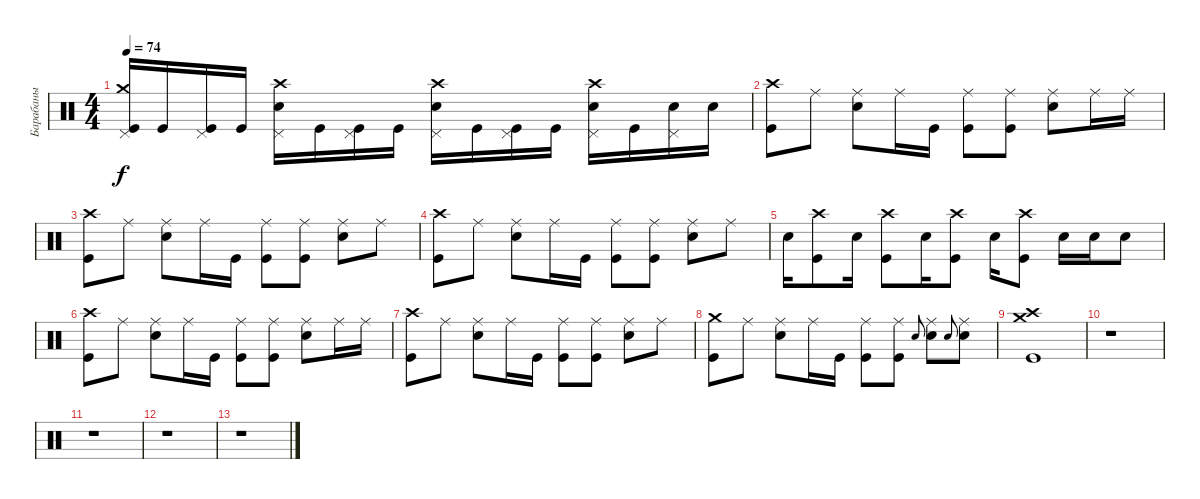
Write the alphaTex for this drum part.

\track ("Барабаны" "Барабаны") {instrument percussion}
\staff {score}
\articulation defaults
\ts (4 4)
\tempo 74
\clef neutral
\ks c
("Kick (hit)" "Crash medium (hit)" "Pedal Hi-Hat (hit)").16{dy f} "Kick (hit)".16 ("Kick (hit)" "Pedal Hi-Hat (hit)").16 "Kick (hit)".16 ("Snare (hit) 2" "Crash high (hit)" "Pedal Hi-Hat (hit)").16 "Kick (hit)".16 ("Kick (hit)" "Pedal Hi-Hat (hit)").16 "Kick (hit)".16 ("Snare (hit) 2" "Crash high (hit)" "Pedal Hi-Hat (hit)").16 "Kick (hit)".16 ("Kick (hit)" "Pedal Hi-Hat (hit)").16 "Kick (hit)".16 ("Snare (hit) 2" "Crash high (hit)" "Pedal Hi-Hat (hit)").16 "Kick (hit)".16 ("Snare (hit) 2" "Pedal Hi-Hat (hit)").16 "Snare (hit) 2".16 |
("Kick (hit)" "Crash high (hit)").8 "Ride (middle)".8 ("Snare (hit) 2" "Ride (middle)").8 "Ride (middle)".16 "Kick (hit)".16 ("Kick (hit)" "Ride (middle)").8 ("Kick (hit)" "Ride (middle)").8 ("Snare (hit) 2" "Ride (middle)").8 "Ride (middle)".16 "Ride (middle)".16 |
("Kick (hit)" "Crash high (hit)").8 "Ride (middle)".8 ("Snare (hit) 2" "Ride (middle)").8 "Ride (middle)".16 "Kick (hit)".16 ("Kick (hit)" "Ride (middle)").8 ("Kick (hit)" "Ride (middle)").8 ("Snare (hit) 2" "Ride (middle)").8 "Ride (middle)".8 |
("Kick (hit)" "Crash high (hit)").8 "Ride (middle)".8 ("Snare (hit) 2" "Ride (middle)").8 "Ride (middle)".16 "Kick (hit)".16 ("Kick (hit)" "Ride (middle)").8 ("Kick (hit)" "Ride (middle)").8 ("Snare (hit) 2" "Ride (middle)").8 "Ride (middle)".8 |
"Snare (hit) 2".16 ("Kick (hit)" "Crash high (hit)").8 "Snare (hit) 2".16 ("Kick (hit)" "Crash high (hit)").8 "Snare (hit) 2".16 ("Kick (hit)" "Crash high (hit)").8 "Snare (hit) 2".16 ("Kick (hit)" "Crash high (hit)").8 "Snare (hit) 2".16 "Snare (hit) 2".16 "Snare (hit) 2".8 |
("Kick (hit)" "Crash high (hit)").8 "Ride (middle)".8 ("Snare (hit) 2" "Ride (middle)").8 "Ride (middle)".16 "Kick (hit)".16 ("Kick (hit)" "Ride (middle)").8 ("Kick (hit)" "Ride (middle)").8 ("Snare (hit) 2" "Ride (middle)").8 "Ride (middle)".16 "Ride (middle)".16 |
("Kick (hit)" "Crash high (hit)").8 "Ride (middle)".8 ("Snare (hit) 2" "Ride (middle)").8 "Ride (middle)".16 "Kick (hit)".16 ("Kick (hit)" "Ride (middle)").8 ("Kick (hit)" "Ride (middle)").8 ("Snare (hit) 2" "Ride (middle)").8 "Ride (middle)".8 |
("Kick (hit)" "Crash medium (hit)").8 "Ride (middle)".8 ("Snare (hit) 2" "Ride (middle)").8 "Ride (middle)".16 "Kick (hit)".16 ("Kick (hit)" "Ride (middle)").8 ("Kick (hit)" "Ride (middle)").8 "Snare (hit) 2".8{gr onbeat} ("Snare (hit) 2" "Ride (middle)").8 "Snare (hit) 2".8{gr onbeat} ("Snare (hit) 2" "Ride (middle)").8 |
("Kick (hit)" "Crash high (hit)" "Crash medium (hit)").1 |
r.1 |
r.1 |
r.1 |
r.1
